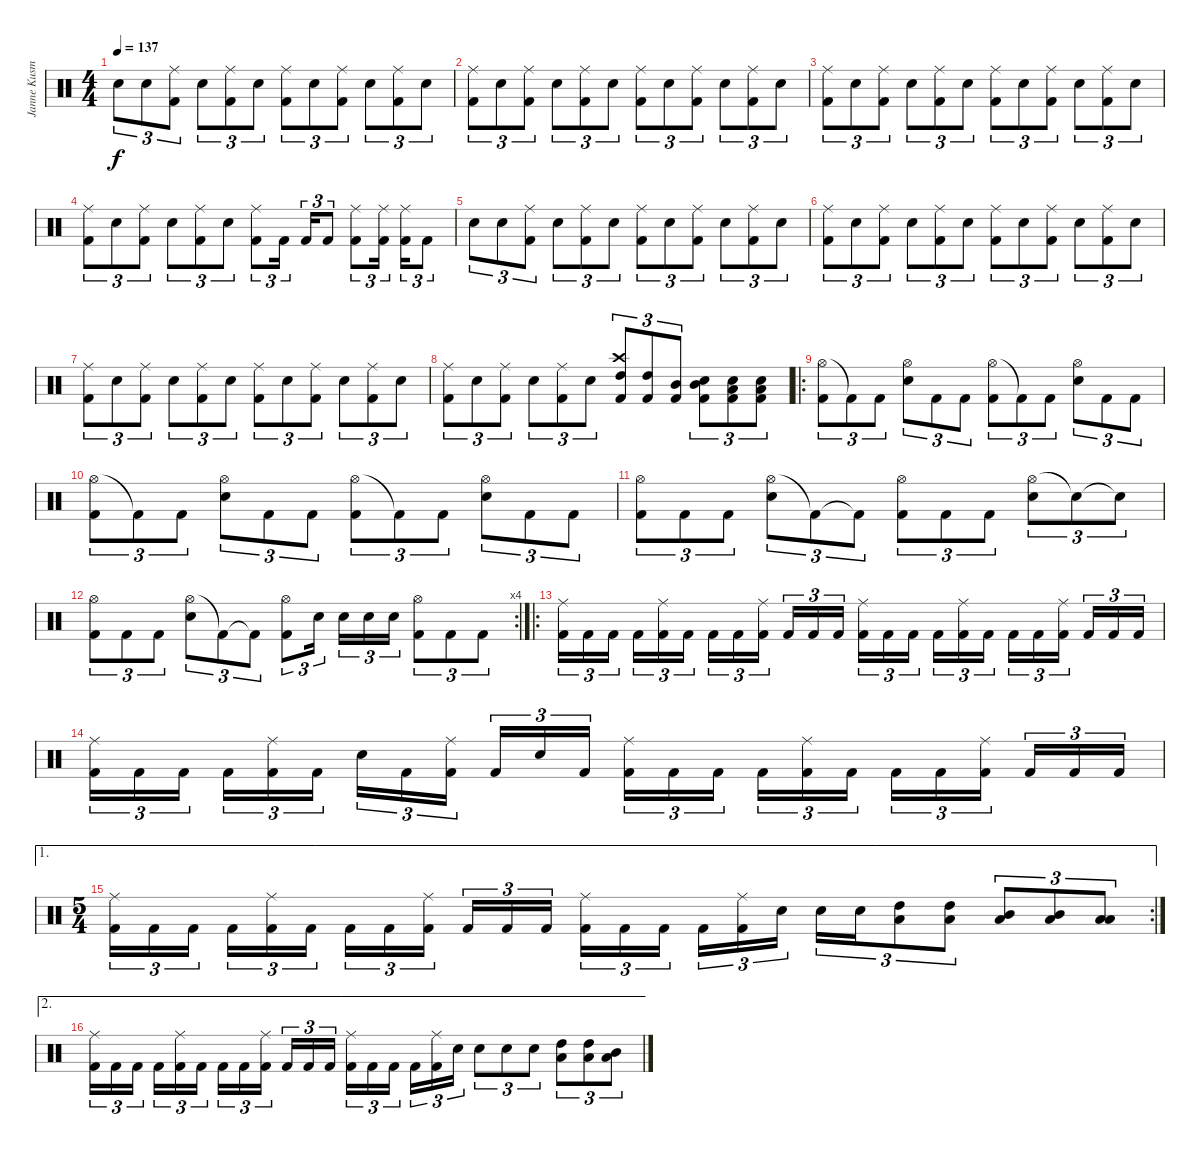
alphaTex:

\track ("Janne Kusmin" "Janne Kusm") {instrument percussion}
\staff {score}
\articulation defaults
\ts (4 4)
\tempo 137
\clef neutral
\ks c "Electric Snare (hit)".8{tu (3 2) dy f} "Electric Snare (hit)".8{tu (3 2)}
("Ride (middle)" "Kick (hit) 2").8{tu (3 2)} "Electric Snare (hit)".8{tu (3 2)} ("Ride (middle)" "Kick (hit) 2").8{tu (3 2)} "Electric Snare (hit)".8{tu (3 2)} ("Ride (middle)" "Kick (hit) 2").8{tu (3 2)} "Electric Snare (hit)".8{tu (3 2)} ("Ride (middle)" "Kick (hit) 2").8{tu (3 2)} "Electric Snare (hit)".8{tu (3 2)} ("Ride (middle)" "Kick (hit) 2").8{tu (3 2)} "Electric Snare (hit)".8{tu (3 2)} |
("Ride (middle)" "Kick (hit) 2").8{tu (3 2)} "Electric Snare (hit)".8{tu (3 2)} ("Ride (middle)" "Kick (hit) 2").8{tu (3 2)} "Electric Snare (hit)".8{tu (3 2)} ("Ride (middle)" "Kick (hit) 2").8{tu (3 2)} "Electric Snare (hit)".8{tu (3 2)} ("Ride (middle)" "Kick (hit) 2").8{tu (3 2)} "Electric Snare (hit)".8{tu (3 2)} ("Ride (middle)" "Kick (hit) 2").8{tu (3 2)} "Electric Snare (hit)".8{tu (3 2)} ("Ride (middle)" "Kick (hit) 2").8{tu (3 2)} "Electric Snare (hit)".8{tu (3 2)} |
("Ride (middle)" "Kick (hit) 2").8{tu (3 2)} "Electric Snare (hit)".8{tu (3 2)} ("Ride (middle)" "Kick (hit) 2").8{tu (3 2)} "Electric Snare (hit)".8{tu (3 2)} ("Ride (middle)" "Kick (hit) 2").8{tu (3 2)} "Electric Snare (hit)".8{tu (3 2)} ("Ride (middle)" "Kick (hit) 2").8{tu (3 2)} "Electric Snare (hit)".8{tu (3 2)} ("Ride (middle)" "Kick (hit) 2").8{tu (3 2)} "Electric Snare (hit)".8{tu (3 2)} ("Ride (middle)" "Kick (hit) 2").8{tu (3 2)} "Electric Snare (hit)".8{tu (3 2)} |
("Ride (middle)" "Kick (hit) 2").8{tu (3 2)} "Electric Snare (hit)".8{tu (3 2)} ("Ride (middle)" "Kick (hit) 2").8{tu (3 2)} "Electric Snare (hit)".8{tu (3 2)} ("Ride (middle)" "Kick (hit) 2").8{tu (3 2)} "Electric Snare (hit)".8{tu (3 2)} ("Ride (middle)" "Kick (hit) 2").8{tu (3 2)} "Kick (hit) 2".16{tu (3 2)} "Kick (hit) 2".16{tu (3 2)} "Kick (hit) 2".8{tu (3 2)} ("Ride (middle)" "Kick (hit) 2").8{tu (3 2)} ("Ride (middle)" "Kick (hit) 2").16{tu (3 2)} ("Ride (middle)" "Kick (hit) 2").16{tu (3 2)} "Kick (hit) 2".8{tu (3 2)} |
"Electric Snare (hit)".8{tu (3 2)} "Electric Snare (hit)".8{tu (3 2)} ("Ride (middle)" "Kick (hit) 2").8{tu (3 2)} "Electric Snare (hit)".8{tu (3 2)} ("Ride (middle)" "Kick (hit) 2").8{tu (3 2)} "Electric Snare (hit)".8{tu (3 2)} ("Ride (middle)" "Kick (hit) 2").8{tu (3 2)} "Electric Snare (hit)".8{tu (3 2)} ("Ride (middle)" "Kick (hit) 2").8{tu (3 2)} "Electric Snare (hit)".8{tu (3 2)} ("Ride (middle)" "Kick (hit) 2").8{tu (3 2)} "Electric Snare (hit)".8{tu (3 2)} |
("Ride (middle)" "Kick (hit) 2").8{tu (3 2)} "Electric Snare (hit)".8{tu (3 2)} ("Ride (middle)" "Kick (hit) 2").8{tu (3 2)} "Electric Snare (hit)".8{tu (3 2)} ("Ride (middle)" "Kick (hit) 2").8{tu (3 2)} "Electric Snare (hit)".8{tu (3 2)} ("Ride (middle)" "Kick (hit) 2").8{tu (3 2)} "Electric Snare (hit)".8{tu (3 2)} ("Ride (middle)" "Kick (hit) 2").8{tu (3 2)} "Electric Snare (hit)".8{tu (3 2)} ("Ride (middle)" "Kick (hit) 2").8{tu (3 2)} "Electric Snare (hit)".8{tu (3 2)} |
("Ride (middle)" "Kick (hit) 2").8{tu (3 2)} "Electric Snare (hit)".8{tu (3 2)} ("Ride (middle)" "Kick (hit) 2").8{tu (3 2)} "Electric Snare (hit)".8{tu (3 2)} ("Ride (middle)" "Kick (hit) 2").8{tu (3 2)} "Electric Snare (hit)".8{tu (3 2)} ("Ride (middle)" "Kick (hit) 2").8{tu (3 2)} "Electric Snare (hit)".8{tu (3 2)} ("Ride (middle)" "Kick (hit) 2").8{tu (3 2)} "Electric Snare (hit)".8{tu (3 2)} ("Ride (middle)" "Kick (hit) 2").8{tu (3 2)} "Electric Snare (hit)".8{tu (3 2)} |
("Ride (middle)" "Kick (hit) 2").8{tu (3 2)} "Electric Snare (hit)".8{tu (3 2)} ("Ride (middle)" "Kick (hit) 2").8{tu (3 2)} "Electric Snare (hit)".8{tu (3 2)} ("Ride (middle)" "Kick (hit) 2").8{tu (3 2)} "Electric Snare (hit)".8{tu (3 2)} ("Crash high (hit)" "High Tom (hit)" "Kick (hit) 2").8{tu (3 2)} ("High Tom (hit)" "Kick (hit) 2").8{tu (3 2)} ("Mid Tom (hit)" "Kick (hit) 2").8{tu (3 2)} ("Mid Tom (hit)" "Electric Snare (hit)" "Kick (hit) 2").8{tu (3 2)} ("Low Tom (hit)" "Electric Snare (hit)" "Kick (hit) 2").8{tu (3 2)} ("Low Tom (hit)" "Electric Snare (hit)" "Kick (hit) 2").8{tu (3 2)} |
\ro
("Hi-Hat (open)" "Kick (hit) 2").8{tu (3 2)} "Kick (hit) 2"{t}.8{tu (3 2)} "Kick (hit) 2".8{tu (3 2)} ("Hi-Hat (open)" "Electric Snare (hit)").8{tu (3 2)} "Kick (hit) 2".8{tu (3 2)} "Kick (hit) 2".8{tu (3 2)} ("Hi-Hat (open)" "Kick (hit) 2").8{tu (3 2)} "Kick (hit) 2"{t}.8{tu (3 2)} "Kick (hit) 2".8{tu (3 2)} ("Hi-Hat (open)" "Electric Snare (hit)").8{tu (3 2)} "Kick (hit) 2".8{tu (3 2)} "Kick (hit) 2".8{tu (3 2)} |
("Hi-Hat (open)" "Kick (hit) 2").8{tu (3 2)} "Kick (hit) 2"{t}.8{tu (3 2)} "Kick (hit) 2".8{tu (3 2)} ("Hi-Hat (open)" "Electric Snare (hit)").8{tu (3 2)} "Kick (hit) 2".8{tu (3 2)} "Kick (hit) 2".8{tu (3 2)} ("Hi-Hat (open)" "Kick (hit) 2").8{tu (3 2)} "Kick (hit) 2"{t}.8{tu (3 2)} "Kick (hit) 2".8{tu (3 2)} ("Hi-Hat (open)" "Electric Snare (hit)").8{tu (3 2)} "Kick (hit) 2".8{tu (3 2)} "Kick (hit) 2".8{tu (3 2)} |
("Hi-Hat (open)" "Kick (hit) 2").8{tu (3 2)} "Kick (hit) 2".8{tu (3 2)} "Kick (hit) 2".8{tu (3 2)} ("Hi-Hat (open)" "Snare (hit) 2").8{tu (3 2)} "Kick (hit) 2"{t}.8{tu (3 2)} "Kick (hit) 2"{t}.8{tu (3 2)} ("Hi-Hat (open)" "Kick (hit) 2").8{tu (3 2)} "Kick (hit) 2".8{tu (3 2)} "Kick (hit) 2".8{tu (3 2)} ("Hi-Hat (open)" "Snare (hit) 2").8{tu (3 2)} "Snare (hit)"{t}.8{tu (3 2)} "Snare (hit)"{t}.8{tu (3 2)} |
\rc 4
("Hi-Hat (open)" "Kick (hit) 2").8{tu (3 2)} "Kick (hit) 2".8{tu (3 2)} "Kick (hit) 2".8{tu (3 2)} ("Hi-Hat (open)" "Snare (hit) 2").8{tu (3 2)} "Kick (hit) 2"{t}.8{tu (3 2)} "Kick (hit) 2"{t}.8{tu (3 2)} ("Hi-Hat (open)" "Kick (hit) 2").8{tu (3 2)} "Electric Snare (hit)".16{tu (3 2)} "Electric Snare (hit)".16{tu (3 2)} "Electric Snare (hit)".16{tu (3 2)} "Electric Snare (hit)".16{tu (3 2)} ("Hi-Hat (open)" "Kick (hit) 2").8{tu (3 2)} "Kick (hit) 2".8{tu (3 2)} "Kick (hit) 2".8{tu (3 2)} |
\ro
("Ride (middle)" "Kick (hit) 2").16{tu (3 2)} "Kick (hit) 2".16{tu (3 2)} "Kick (hit) 2".16{tu (3 2)} "Kick (hit) 2".16{tu (3 2)} ("Ride (middle)" "Kick (hit) 2").16{tu (3 2)} "Kick (hit) 2".16{tu (3 2)} "Kick (hit) 2".16{tu (3 2)} "Kick (hit) 2".16{tu (3 2)} ("Ride (middle)" "Kick (hit) 2").16{tu (3 2)} "Kick (hit) 2".16{tu (3 2)} "Kick (hit) 2".16{tu (3 2)} "Kick (hit) 2".16{tu (3 2)} ("Ride (middle)" "Kick (hit) 2").16{tu (3 2)} "Kick (hit) 2".16{tu (3 2)} "Kick (hit) 2".16{tu (3 2)} "Kick (hit) 2".16{tu (3 2)} ("Ride (middle)" "Kick (hit) 2").16{tu (3 2)} "Kick (hit) 2".16{tu (3 2)} "Kick (hit) 2".16{tu (3 2)} "Kick (hit) 2".16{tu (3 2)} ("Ride (middle)" "Kick (hit) 2").16{tu (3 2)} "Kick (hit) 2".16{tu (3 2)} "Kick (hit) 2".16{tu (3 2)} "Kick (hit) 2".16{tu (3 2)} |
("Ride (middle)" "Kick (hit) 2").16{tu (3 2)} "Kick (hit) 2".16{tu (3 2)} "Kick (hit) 2".16{tu (3 2)} "Kick (hit) 2".16{tu (3 2)} ("Ride (middle)" "Kick (hit) 2").16{tu (3 2)} "Kick (hit) 2".16{tu (3 2)} "Electric Snare (hit)".16{tu (3 2)} "Kick (hit) 2".16{tu (3 2)} ("Ride (middle)" "Kick (hit) 2").16{tu (3 2)} "Kick (hit) 2".16{tu (3 2)} "Electric Snare (hit)".16{tu (3 2)} "Kick (hit) 2".16{tu (3 2)} ("Ride (middle)" "Kick (hit) 2").16{tu (3 2)} "Kick (hit) 2".16{tu (3 2)} "Kick (hit) 2".16{tu (3 2)} "Kick (hit) 2".16{tu (3 2)} ("Ride (middle)" "Kick (hit) 2").16{tu (3 2)} "Kick (hit) 2".16{tu (3 2)} "Kick (hit) 2".16{tu (3 2)} "Kick (hit) 2".16{tu (3 2)} ("Ride (middle)" "Kick (hit) 2").16{tu (3 2)} "Kick (hit) 2".16{tu (3 2)} "Kick (hit) 2".16{tu (3 2)} "Kick (hit) 2".16{tu (3 2)} |
\ae 1
\rc 2
\ts (5 4)
("Ride (middle)" "Kick (hit) 2").16{tu (3 2)} "Kick (hit) 2".16{tu (3 2)} "Kick (hit) 2".16{tu (3 2)} "Kick (hit) 2".16{tu (3 2)} ("Ride (middle)" "Kick (hit) 2").16{tu (3 2)} "Kick (hit) 2".16{tu (3 2)} "Kick (hit) 2".16{tu (3 2)} "Kick (hit) 2".16{tu (3 2)} ("Ride (middle)" "Kick (hit) 2").16{tu (3 2)} "Kick (hit) 2".16{tu (3 2)} "Kick (hit) 2".16{tu (3 2)} "Kick (hit) 2".16{tu (3 2)} ("Ride (middle)" "Kick (hit) 2").16{tu (3 2)} "Kick (hit) 2".16{tu (3 2)} "Kick (hit) 2".16{tu (3 2)} "Kick (hit) 2".16{tu (3 2)} ("Ride (middle)" "Kick (hit) 2").16{tu (3 2)} "Snare (hit) 2".16{tu (3 2)} "Snare (hit) 2".16{tu (3 2)} "Snare (hit) 2".16{tu (3 2)} ("High Tom (hit)" "Low Tom (hit)").8{tu (3 2)} ("High Tom (hit)" "Low Tom (hit)").8{tu (3 2)} ("Mid Tom (hit)" "Low Tom (hit)").8{tu (3 2)} ("Mid Tom (hit)" "Low Tom (hit)").8{tu (3 2)} ("Low Tom (hit)" "Low Tom (hit)").8{tu (3 2)} |
\ae 2
("Ride (middle)" "Kick (hit) 2").16{tu (3 2)} "Kick (hit) 2".16{tu (3 2)} "Kick (hit) 2".16{tu (3 2)} "Kick (hit) 2".16{tu (3 2)} ("Ride (middle)" "Kick (hit) 2").16{tu (3 2)} "Kick (hit) 2".16{tu (3 2)} "Kick (hit) 2".16{tu (3 2)} "Kick (hit) 2".16{tu (3 2)} ("Ride (middle)" "Kick (hit) 2").16{tu (3 2)} "Kick (hit) 2".16{tu (3 2)} "Kick (hit) 2".16{tu (3 2)} "Kick (hit) 2".16{tu (3 2)} ("Ride (middle)" "Kick (hit) 2").16{tu (3 2)} "Kick (hit) 2".16{tu (3 2)} "Kick (hit) 2".16{tu (3 2)} "Kick (hit) 2".16{tu (3 2)} ("Ride (middle)" "Kick (hit) 2").16{tu (3 2)} "Electric Snare (hit)".16{tu (3 2)} "Electric Snare (hit)".8{tu (3 2)} "Electric Snare (hit)".8{tu (3 2)} "Electric Snare (hit)".8{tu (3 2)} ("High Tom (hit)" "Low Tom (hit)").8{tu (3 2)} ("High Tom (hit)" "Low Tom (hit)").8{tu (3 2)} ("Mid Tom (hit)" "Low Tom (hit)").8{tu (3 2)}
